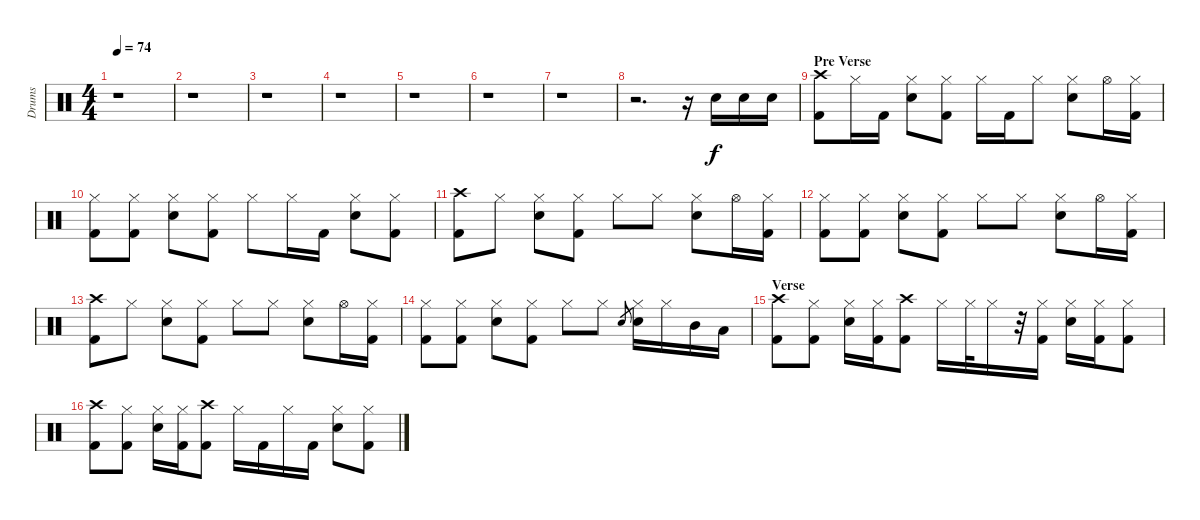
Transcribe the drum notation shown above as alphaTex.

\track ("Drums" "Drums") {instrument percussion}
\staff {score}
\articulation defaults
\ts (4 4)
\tempo 74
\clef neutral
\ks c
r.1{dy f} |
r.1 |
r.1 |
r.1 |
r.1 |
r.1 |
r.1 |
r.2{d} r.16 "Electric Snare (hit)".16 "Electric Snare (hit)".16 "Electric Snare (hit)".16 |
\section ("" "Pre Verse ")
("Crash high (hit)" "Kick (hit) 2").8 "Hi-Hat (closed)".16 "Kick (hit) 2".16 ("Hi-Hat (closed)" "Electric Snare (hit)").8 ("Hi-Hat (closed)" "Kick (hit) 2").8 "Hi-Hat (closed)".16 "Kick (hit) 2".16 "Hi-Hat (closed)".8 ("Hi-Hat (closed)" "Electric Snare (hit)").8 "Hi-Hat (open)".16 ("Hi-Hat (closed)" "Kick (hit) 2").16 |
("Hi-Hat (closed)" "Kick (hit) 2").8 ("Hi-Hat (closed)" "Kick (hit) 2").8 ("Hi-Hat (closed)" "Electric Snare (hit)").8 ("Hi-Hat (closed)" "Kick (hit) 2").8 "Hi-Hat (closed)".8 "Hi-Hat (closed)".16 "Kick (hit) 2".16 ("Hi-Hat (closed)" "Electric Snare (hit)").8 ("Hi-Hat (closed)" "Kick (hit) 2").8 |
("Crash high (hit)" "Kick (hit) 2").8 "Hi-Hat (closed)".8 ("Hi-Hat (closed)" "Electric Snare (hit)").8 ("Hi-Hat (closed)" "Kick (hit) 2").8 "Hi-Hat (closed)".8 "Hi-Hat (closed)".8 ("Hi-Hat (closed)" "Electric Snare (hit)").8 "Hi-Hat (open)".16 ("Hi-Hat (closed)" "Kick (hit) 2").16 |
("Hi-Hat (closed)" "Kick (hit) 2").8 ("Hi-Hat (closed)" "Kick (hit) 2").8 ("Hi-Hat (closed)" "Electric Snare (hit)").8 ("Hi-Hat (closed)" "Kick (hit) 2").8 "Hi-Hat (closed)".8 "Hi-Hat (closed)".8 ("Hi-Hat (closed)" "Electric Snare (hit)").8 "Hi-Hat (open)".16 ("Hi-Hat (closed)" "Kick (hit) 2").16 |
("Crash high (hit)" "Kick (hit) 2").8 "Hi-Hat (closed)".8 ("Hi-Hat (closed)" "Electric Snare (hit)").8 ("Hi-Hat (closed)" "Kick (hit) 2").8 "Hi-Hat (closed)".8 "Hi-Hat (closed)".8 ("Hi-Hat (closed)" "Electric Snare (hit)").8 "Hi-Hat (open)".16 ("Hi-Hat (closed)" "Kick (hit) 2").16 |
("Hi-Hat (closed)" "Kick (hit) 2").8 ("Hi-Hat (closed)" "Kick (hit) 2").8 ("Hi-Hat (closed)" "Electric Snare (hit)").8 ("Hi-Hat (closed)" "Kick (hit) 2").8 "Hi-Hat (closed)".8 "Hi-Hat (closed)".8 "Electric Snare (hit)".8{gr} ("Hi-Hat (closed)" "Electric Snare (hit)").16 "Hi-Hat (closed)".16 "Mid Tom (hit)".16 "Low Tom (hit)".16 |
\section ("" "Verse")
("Crash high (hit)" "Kick (hit) 2").8 ("Hi-Hat (closed)" "Kick (hit) 2").8 ("Hi-Hat (closed)" "Electric Snare (hit)").16 ("Hi-Hat (closed)" "Kick (hit) 2").16 ("Crash high (hit)" "Kick (hit) 2").8 "Hi-Hat (closed)".16 "Hi-Hat (closed)".32 "Hi-Hat (closed)".16 r.32 ("Hi-Hat (closed)" "Kick (hit) 2").16 ("Hi-Hat (closed)" "Electric Snare (hit)").16 ("Hi-Hat (closed)" "Kick (hit) 2").16 ("Hi-Hat (closed)" "Kick (hit) 2").8 |
("Crash high (hit)" "Kick (hit) 2").8 ("Hi-Hat (closed)" "Kick (hit) 2").8 ("Hi-Hat (closed)" "Electric Snare (hit)").16 ("Hi-Hat (closed)" "Kick (hit) 2").16 ("Crash high (hit)" "Kick (hit) 2").8 "Hi-Hat (closed)".16 "Kick (hit) 2".16 "Hi-Hat (closed)".16 "Kick (hit) 2".16 ("Hi-Hat (closed)" "Electric Snare (hit)").8 ("Hi-Hat (closed)" "Kick (hit) 2").8
